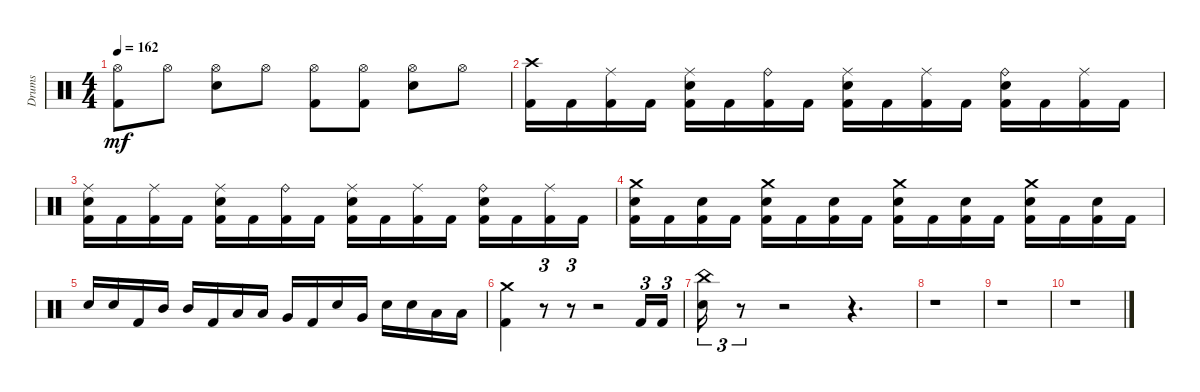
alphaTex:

\track ("Drums" "Drums") {instrument percussion}
\staff {score}
\articulation defaults
\ts (4 4)
\tempo 162
\clef neutral
\ks aminor
("Hi-Hat (open)" "Kick (hit) 2").8{dy mf} "Hi-Hat (open)".8 ("Snare (hit) 2" "Hi-Hat (open)").8 "Hi-Hat (open)".8 ("Kick (hit) 2" "Hi-Hat (open)").8 ("Hi-Hat (open)" "Kick (hit) 2").8 ("Hi-Hat (open)" "Snare (hit) 2").8 "Hi-Hat (open)".8 |
("Kick (hit) 2" "Crash high (hit)").16 "Kick (hit) 2".16 ("Kick (hit) 2" "Ride (middle)").16 "Kick (hit) 2".16 ("Snare (hit) 2" "Kick (hit) 2" "Ride (middle)").16 "Kick (hit) 2".16 ("Ride (bell)" "Kick (hit) 2").16 "Kick (hit) 2".16 ("Kick (hit) 2" "Ride (middle)" "Snare (hit) 2").16 "Kick (hit) 2".16 ("Ride (middle)" "Kick (hit) 2").16 "Kick (hit) 2".16 ("Ride (bell)" "Kick (hit) 2" "Snare (hit) 2").16 "Kick (hit) 2".16 ("Ride (middle)" "Kick (hit) 2").16 "Kick (hit) 2".16 |
("Kick (hit) 2" "Snare (hit) 2" "Ride (middle)").16 "Kick (hit) 2".16 ("Kick (hit) 2" "Ride (middle)").16 "Kick (hit) 2".16 ("Snare (hit) 2" "Ride (middle)" "Kick (hit) 2").16 "Kick (hit) 2".16 ("Ride (bell)" "Kick (hit) 2").16 "Kick (hit) 2".16 ("Ride (middle)" "Kick (hit) 2" "Snare (hit) 2").16 "Kick (hit) 2".16 ("Kick (hit) 2" "Ride (middle)").16 "Kick (hit) 2".16 ("Ride (bell)" "Kick (hit) 2" "Snare (hit) 2").16 "Kick (hit) 2".16 ("Ride (middle)" "Kick (hit) 2").16 "Kick (hit) 2".16 |
("Kick (hit) 2" "Crash medium (hit)" "Snare (hit) 2").16 "Kick (hit) 2".16 ("Snare (hit) 2" "Kick (hit) 2").16 "Kick (hit) 2".16 ("Snare (hit) 2" "Kick (hit) 2" "Crash medium (hit)").16 "Kick (hit) 2".16 ("Snare (hit) 2" "Kick (hit) 2").16 "Kick (hit) 2".16 ("Crash medium (hit)" "Snare (hit) 2" "Kick (hit) 2").16 "Kick (hit) 2".16 ("Snare (hit) 2" "Kick (hit) 2").16 "Kick (hit) 2".16 ("Crash medium (hit)" "Snare (hit) 2" "Kick (hit) 2").16 "Kick (hit) 2".16 ("Snare (hit) 2" "Kick (hit) 2").16 "Kick (hit) 2".16 |
"Snare (hit) 2".16 "Snare (hit) 2".16 "Kick (hit) 2".16 "Mid Tom (hit)".16 "Mid Tom (hit)".16 "Kick (hit) 2".16 "Low Tom (hit)".16 "Low Tom (hit)".16 "Very Low Tom (hit)".16 "Kick (hit) 2".16 "Snare (hit) 2".16 "Very Low Tom (hit)".16 "Snare (hit) 2".16 "Snare (hit) 2".16 "Low Floor Tom (hit)".16 "Low Floor Tom (hit)".16 |
("Kick (hit) 2" "Crash medium (hit)").4 r.8{tu (3 2)} r.8{tu (3 2)} r.2 "Kick (hit) 2".16{tu (3 2)} "Kick (hit) 2".16{tu (3 2)} |
("China (hit)" "Snare (hit) 2").16{tu (3 2)} r.8{tu (3 2)} r.2 r.4{d} |
r.1 |
r.1 |
r.1
